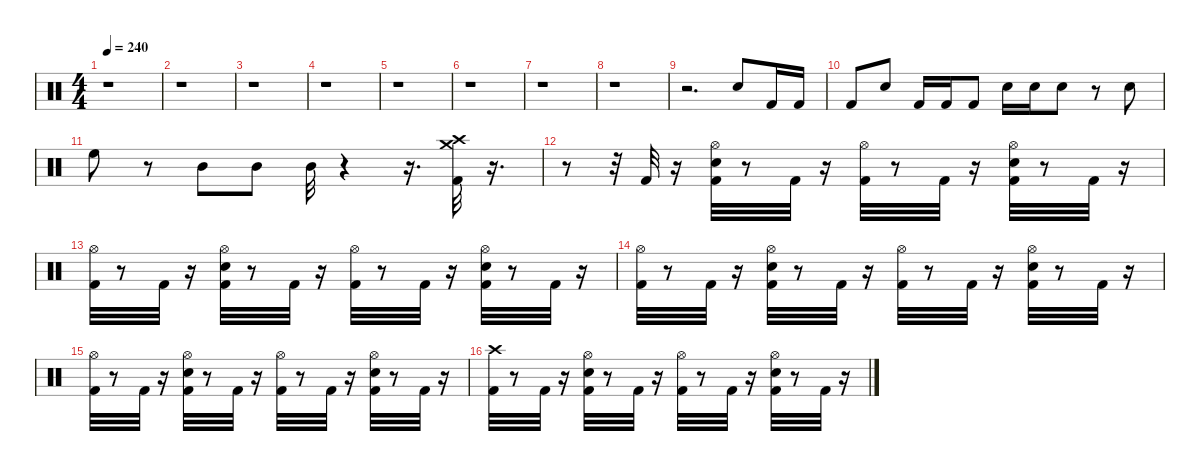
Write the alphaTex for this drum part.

\defaultSystemsLayout 4
\hideDynamics
\bracketExtendMode nobrackets
\singleTrackTrackNamePolicy hidden
\multiTrackTrackNamePolicy hidden
\otherSystemsTrackNameOrientation horizontal
\track ("Drums" "drm.") {instrument percussion}
\staff {score}
\articulation defaults
\ts (4 4)
\tempo 240
\clef neutral
\ks c
r.1{dy f} |
r.1 |
r.1 |
r.1 |
r.1 |
r.1 |
r.1 |
r.1 |
r.2{d} "Snare (hit) 2".8{dy fff} "Kick (hit) 2".16 "Kick (hit) 2".16 |
"Kick (hit) 2".8 "Snare (hit) 2".8 "Kick (hit) 2".16 "Kick (hit) 2".16 "Kick (hit) 2".8 "Snare (hit) 2".16 "Snare (hit) 2".16 "Snare (hit) 2".8 r.8 "Snare (hit) 2".8 |
"High Floor Tom (hit)".8 r.8 "Mid Tom (hit)".8 "Mid Tom (hit)".8 "Mid Tom (hit)".32{dy f} r.4 r.16{d} ("Crash medium (hit)" "Crash high (hit)" "Kick (hit) 2").32 r.16{d} |
r.8 r.32 "Kick (hit) 2".32 r.16 ("Snare (hit) 2" "Hi-Hat (open)" "Kick (hit) 2").32 r.8 "Kick (hit) 2".32 r.16 ("Hi-Hat (open)" "Kick (hit) 2").32 r.8 "Kick (hit) 2".32 r.16 ("Kick (hit) 2" "Snare (hit) 2" "Hi-Hat (open)").32 r.8 "Kick (hit) 2".32 r.16 |
("Kick (hit) 2" "Hi-Hat (open)").32 r.8 "Kick (hit) 2".32 r.16 ("Kick (hit) 2" "Snare (hit) 2" "Hi-Hat (open)").32 r.8 "Kick (hit) 2".32 r.16 ("Kick (hit) 2" "Hi-Hat (open)").32 r.8 "Kick (hit) 2".32 r.16 ("Hi-Hat (open)" "Snare (hit) 2" "Kick (hit) 2").32 r.8 "Kick (hit) 2".32 r.16 |
("Hi-Hat (open)" "Kick (hit) 2").32 r.8 "Kick (hit) 2".32 r.16 ("Kick (hit) 2" "Hi-Hat (open)" "Snare (hit) 2").32 r.8 "Kick (hit) 2".32 r.16 ("Hi-Hat (open)" "Kick (hit) 2").32 r.8 "Kick (hit) 2".32 r.16 ("Snare (hit) 2" "Kick (hit) 2" "Hi-Hat (open)").32 r.8 "Kick (hit) 2".32 r.16 |
("Hi-Hat (open)" "Kick (hit) 2").32 r.8 "Kick (hit) 2".32 r.16 ("Hi-Hat (open)" "Snare (hit) 2" "Kick (hit) 2").32 r.8 "Kick (hit) 2".32 r.16 ("Hi-Hat (open)" "Kick (hit) 2").32 r.8 "Kick (hit) 2".32 r.16 ("Hi-Hat (open)" "Kick (hit) 2" "Snare (hit) 2").32 r.8 "Kick (hit) 2".32 r.16 |
("Crash high (hit)" "Kick (hit) 2").32 r.8 "Kick (hit) 2".32 r.16 ("Snare (hit) 2" "Kick (hit) 2" "Hi-Hat (open)").32 r.8 "Kick (hit) 2".32 r.16 ("Hi-Hat (open)" "Kick (hit) 2").32 r.8 "Kick (hit) 2".32 r.16 ("Kick (hit) 2" "Snare (hit) 2" "Hi-Hat (open)").32 r.8 "Kick (hit) 2".32 r.16
